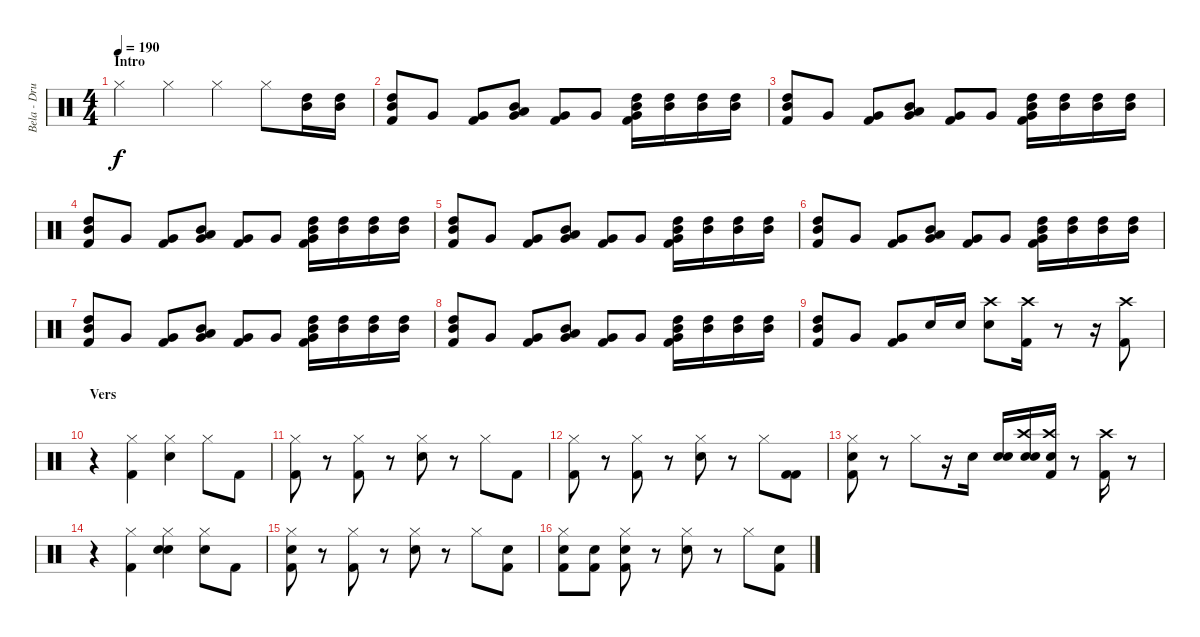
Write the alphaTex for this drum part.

\track ("Bela - Drums" "Bela - Dru") {instrument percussion}
\staff {score}
\articulation defaults
\ts (4 4)
\section ("" "Intro")
\tempo 190
\clef neutral
\ks c "Hi-Hat (closed)".4{dy f} "Hi-Hat (closed)".4 "Hi-Hat (closed)".4 "Hi-Hat (closed)".8
("High Tom (hit)" "Mid Tom (hit)").16{volume 8} ("Mid Tom (hit)" "High Tom (hit)").16 |
("Mid Tom (hit)" "High Tom (hit)" "Kick (hit) 2").8 "Very Low Tom (hit)".8 ("Very Low Tom (hit)" "Kick (hit) 2").8 ("Very Low Tom (hit)" "Mid Tom (hit)" "Low Tom (hit)").8 ("Very Low Tom (hit)" "Kick (hit) 2").8 "Very Low Tom (hit)".8 ("Very Low Tom (hit)" "High Tom (hit)" "Mid Tom (hit)" "Kick (hit) 2").16 ("High Tom (hit)" "Mid Tom (hit)").16 ("High Tom (hit)" "Mid Tom (hit)").16 ("High Tom (hit)" "Mid Tom (hit)").16 |
("Mid Tom (hit)" "High Tom (hit)" "Kick (hit) 2").8{volume 9} "Very Low Tom (hit)".8 ("Very Low Tom (hit)" "Kick (hit) 2").8 ("Very Low Tom (hit)" "Mid Tom (hit)" "Low Tom (hit)").8 ("Very Low Tom (hit)" "Kick (hit) 2").8 "Very Low Tom (hit)".8 ("Very Low Tom (hit)" "High Tom (hit)" "Mid Tom (hit)" "Kick (hit) 2").16 ("High Tom (hit)" "Mid Tom (hit)").16 ("High Tom (hit)" "Mid Tom (hit)").16 ("High Tom (hit)" "Mid Tom (hit)").16 |
("Mid Tom (hit)" "High Tom (hit)" "Kick (hit) 2").8{volume 10} "Very Low Tom (hit)".8 ("Very Low Tom (hit)" "Kick (hit) 2").8 ("Very Low Tom (hit)" "Mid Tom (hit)" "Low Tom (hit)").8 ("Very Low Tom (hit)" "Kick (hit) 2").8 "Very Low Tom (hit)".8 ("Very Low Tom (hit)" "High Tom (hit)" "Mid Tom (hit)" "Kick (hit) 2").16 ("High Tom (hit)" "Mid Tom (hit)").16 ("High Tom (hit)" "Mid Tom (hit)").16 ("High Tom (hit)" "Mid Tom (hit)").16 |
("Mid Tom (hit)" "High Tom (hit)" "Kick (hit) 2").8 "Very Low Tom (hit)".8 ("Very Low Tom (hit)" "Kick (hit) 2").8 ("Very Low Tom (hit)" "Mid Tom (hit)" "Low Tom (hit)").8 ("Very Low Tom (hit)" "Kick (hit) 2").8 "Very Low Tom (hit)".8 ("Very Low Tom (hit)" "High Tom (hit)" "Mid Tom (hit)" "Kick (hit) 2").16 ("High Tom (hit)" "Mid Tom (hit)").16 ("High Tom (hit)" "Mid Tom (hit)").16 ("High Tom (hit)" "Mid Tom (hit)").16 |
("Mid Tom (hit)" "High Tom (hit)" "Kick (hit) 2").8{volume 11} "Very Low Tom (hit)".8 ("Very Low Tom (hit)" "Kick (hit) 2").8 ("Very Low Tom (hit)" "Mid Tom (hit)" "Low Tom (hit)").8 ("Very Low Tom (hit)" "Kick (hit) 2").8 "Very Low Tom (hit)".8 ("Very Low Tom (hit)" "High Tom (hit)" "Mid Tom (hit)" "Kick (hit) 2").16 ("High Tom (hit)" "Mid Tom (hit)").16 ("High Tom (hit)" "Mid Tom (hit)").16 ("High Tom (hit)" "Mid Tom (hit)").16 |
("Mid Tom (hit)" "High Tom (hit)" "Kick (hit) 2").8{volume 12} "Very Low Tom (hit)".8 ("Very Low Tom (hit)" "Kick (hit) 2").8 ("Very Low Tom (hit)" "Mid Tom (hit)" "Low Tom (hit)").8 ("Very Low Tom (hit)" "Kick (hit) 2").8 "Very Low Tom (hit)".8 ("Very Low Tom (hit)" "High Tom (hit)" "Mid Tom (hit)" "Kick (hit) 2").16 ("High Tom (hit)" "Mid Tom (hit)").16 ("High Tom (hit)" "Mid Tom (hit)").16 ("High Tom (hit)" "Mid Tom (hit)").16 |
("Mid Tom (hit)" "High Tom (hit)" "Kick (hit) 2").8{volume 13} "Very Low Tom (hit)".8 ("Very Low Tom (hit)" "Kick (hit) 2").8 ("Very Low Tom (hit)" "Mid Tom (hit)" "Low Tom (hit)").8 ("Very Low Tom (hit)" "Kick (hit) 2").8 "Very Low Tom (hit)".8 ("Very Low Tom (hit)" "High Tom (hit)" "Mid Tom (hit)" "Kick (hit) 2").16 ("High Tom (hit)" "Mid Tom (hit)").16 ("High Tom (hit)" "Mid Tom (hit)").16 ("High Tom (hit)" "Mid Tom (hit)").16 |
("Mid Tom (hit)" "High Tom (hit)" "Kick (hit) 2").8 "Very Low Tom (hit)".8 ("Very Low Tom (hit)" "Kick (hit) 2").8 "Electric Snare (hit)".16 "Electric Snare (hit)".16 ("Crash high (hit)" "Electric Snare (hit)").8 ("Crash high (hit)" "Kick (hit) 2").16 r.8 r.16 ("Crash high (hit)" "Kick (hit) 2").8 |
\section ("" "Vers")
r.4 ("Hi-Hat (closed)" "Kick (hit) 2").4 ("Hi-Hat (closed)" "Electric Snare (hit)").4 "Hi-Hat (closed)".8 "Kick (hit) 2".8 |
("Hi-Hat (closed)" "Kick (hit) 2").8 r.8 ("Hi-Hat (closed)" "Kick (hit) 2").8 r.8 ("Hi-Hat (closed)" "Electric Snare (hit)").8 r.8 "Hi-Hat (closed)".8 "Kick (hit) 2".8 |
("Hi-Hat (closed)" "Kick (hit) 2").8 r.8 ("Hi-Hat (closed)" "Kick (hit) 2").8 r.8 ("Hi-Hat (closed)" "Electric Snare (hit)").8 r.8 "Hi-Hat (closed)".8 ("Kick (hit) 2" "Kick (hit) 2").8 |
("Snare (hit)" "Hi-Hat (closed)" "Kick (hit) 2").8 r.8 "Hi-Hat (closed)".8 r.16 "Electric Snare (hit)".16 ("Snare (hit)" "Electric Snare (hit)").16 ("Snare (hit)" "Crash high (hit)" "Electric Snare (hit)").16 ("Snare (hit)" "Crash high (hit)" "Kick (hit) 2").16 r.8 ("Kick (hit) 2" "Crash high (hit)").16 r.8 |
r.4 ("Hi-Hat (closed)" "Kick (hit) 2").4 ("Snare (hit)" "Hi-Hat (closed)" "Electric Snare (hit)").4 ("Snare (hit)" "Hi-Hat (closed)").8 "Kick (hit) 2".8 |
("Snare (hit)" "Hi-Hat (closed)" "Kick (hit) 2").8 r.8 ("Hi-Hat (closed)" "Kick (hit) 2").8 r.8 ("Hi-Hat (closed)" "Electric Snare (hit)").8 r.8 "Hi-Hat (closed)".8 ("Snare (hit)" "Kick (hit) 2").8 |
("Snare (hit)" "Hi-Hat (closed)" "Kick (hit) 2").8 ("Snare (hit)" "Kick (hit) 2").8 ("Snare (hit)" "Hi-Hat (closed)" "Kick (hit) 2").8 r.8 ("Hi-Hat (closed)" "Electric Snare (hit)").8 r.8 "Hi-Hat (closed)".8 ("Snare (hit)" "Kick (hit) 2").8
